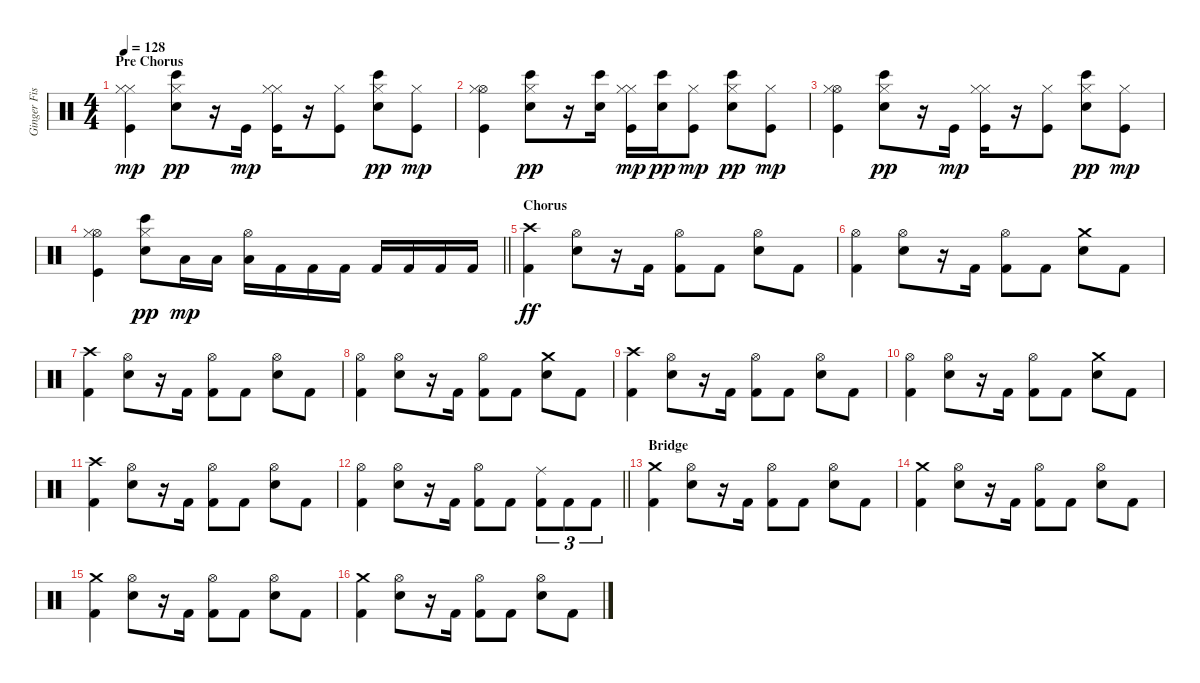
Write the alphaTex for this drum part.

\track ("Ginger Fish" "Ginger Fis") {instrument percussion}
\staff {score}
\articulation defaults
\ts (4 4)
\section ("" "Pre Chorus")
\tempo 128
\clef neutral
\ks c
("Hi-Hat (closed)" "Hi-Hat (closed)" "Kick (hit)").4{dy mp} ("Hi-Hat (closed)" "Bongo High (hit)" "Electric Snare (hit)").8{dy pp} r.16 "Kick (hit)".16{dy mp} ("Hi-Hat (closed)" "Hi-Hat (closed)" "Kick (hit)").16 r.16 ("Hi-Hat (closed)" "Kick (hit)").8 ("Hi-Hat (closed)" "Bongo High (hit)" "Electric Snare (hit)").8{dy pp} ("Hi-Hat (closed)" "Kick (hit)").8{dy mp} |
("Hi-Hat (open)" "Hi-Hat (closed)" "Kick (hit)").4 ("Hi-Hat (closed)" "Bongo High (hit)" "Electric Snare (hit)").8{dy pp} r.16 ("Bongo High (hit)" "Electric Snare (hit)").16 ("Hi-Hat (closed)" "Hi-Hat (closed)" "Kick (hit)").16{dy mp} ("Bongo High (hit)" "Electric Snare (hit)").16{dy pp} ("Hi-Hat (closed)" "Kick (hit)").8{dy mp} ("Hi-Hat (closed)" "Bongo High (hit)" "Electric Snare (hit)").8{dy pp} ("Hi-Hat (closed)" "Kick (hit)").8{dy mp} |
("Hi-Hat (open)" "Hi-Hat (closed)" "Kick (hit)").4 ("Hi-Hat (closed)" "Bongo High (hit)" "Electric Snare (hit)").8{dy pp} r.16 "Kick (hit)".16{dy mp} ("Hi-Hat (closed)" "Hi-Hat (closed)" "Kick (hit)").16 r.16 ("Hi-Hat (closed)" "Kick (hit)").8 ("Hi-Hat (closed)" "Bongo High (hit)" "Electric Snare (hit)").8{dy pp} ("Hi-Hat (closed)" "Kick (hit)").8{dy mp} |
\barLineRight lightlight
("Hi-Hat (open)" "Hi-Hat (closed)" "Kick (hit)").4 ("Hi-Hat (closed)" "Bongo High (hit)" "Electric Snare (hit)").8{dy pp} "Low Floor Tom (hit)".16{dy mp} "Low Floor Tom (hit)".16 ("Hi-Hat (open)" "Low Floor Tom (hit)").16 "Kick (hit) 2".16 "Kick (hit) 2".16 "Kick (hit) 2".16 "Kick (hit) 2".16 "Kick (hit) 2".16 "Kick (hit) 2".16 "Kick (hit) 2".16 |
\section ("" "Chorus")
("Crash high (hit)" "Kick (hit) 2").4{dy ff} ("Hi-Hat (open)" "Electric Snare (hit)").8 r.16 "Kick (hit) 2".16 ("Hi-Hat (open)" "Kick (hit) 2").8 "Kick (hit) 2".8 ("Hi-Hat (open)" "Electric Snare (hit)").8 "Kick (hit) 2".8 |
("Hi-Hat (open)" "Kick (hit) 2").4 ("Hi-Hat (open)" "Electric Snare (hit)").8 r.16 "Kick (hit) 2".16 ("Hi-Hat (open)" "Kick (hit) 2").8 "Kick (hit) 2".8 ("Crash medium (hit)" "Electric Snare (hit)").8 "Kick (hit) 2".8 |
("Crash high (hit)" "Kick (hit) 2").4 ("Hi-Hat (open)" "Electric Snare (hit)").8 r.16 "Kick (hit) 2".16 ("Hi-Hat (open)" "Kick (hit) 2").8 "Kick (hit) 2".8 ("Hi-Hat (open)" "Electric Snare (hit)").8 "Kick (hit) 2".8 |
("Hi-Hat (open)" "Kick (hit) 2").4 ("Hi-Hat (open)" "Electric Snare (hit)").8 r.16 "Kick (hit) 2".16 ("Hi-Hat (open)" "Kick (hit) 2").8 "Kick (hit) 2".8 ("Crash medium (hit)" "Electric Snare (hit)").8 "Kick (hit) 2".8 |
("Crash high (hit)" "Kick (hit) 2").4 ("Hi-Hat (open)" "Electric Snare (hit)").8 r.16 "Kick (hit) 2".16 ("Hi-Hat (open)" "Kick (hit) 2").8 "Kick (hit) 2".8 ("Hi-Hat (open)" "Electric Snare (hit)").8 "Kick (hit) 2".8 |
("Hi-Hat (open)" "Kick (hit) 2").4 ("Hi-Hat (open)" "Electric Snare (hit)").8 r.16 "Kick (hit) 2".16 ("Hi-Hat (open)" "Kick (hit) 2").8 "Kick (hit) 2".8 ("Crash medium (hit)" "Electric Snare (hit)").8 "Kick (hit) 2".8 |
("Crash high (hit)" "Kick (hit) 2").4 ("Hi-Hat (open)" "Electric Snare (hit)").8 r.16 "Kick (hit) 2".16 ("Hi-Hat (open)" "Kick (hit) 2").8 "Kick (hit) 2".8 ("Hi-Hat (open)" "Electric Snare (hit)").8 "Kick (hit) 2".8 |
\barLineRight lightlight
("Hi-Hat (open)" "Kick (hit) 2").4 ("Hi-Hat (open)" "Electric Snare (hit)").8 r.16 "Kick (hit) 2".16 ("Hi-Hat (open)" "Kick (hit) 2").8 "Kick (hit) 2".8 ("Ride (middle)" "Kick (hit) 2").8{tu (3 2)} "Kick (hit) 2".8{tu (3 2)} "Kick (hit) 2".8{tu (3 2)} |
\section ("" "Bridge")
("Crash medium (hit)" "Kick (hit) 2").4 ("Hi-Hat (open)" "Electric Snare (hit)").8 r.16 "Kick (hit) 2".16 ("Hi-Hat (open)" "Kick (hit) 2").8 "Kick (hit) 2".8 ("Hi-Hat (open)" "Electric Snare (hit)").8 "Kick (hit) 2".8 |
("Crash medium (hit)" "Kick (hit) 2").4 ("Hi-Hat (open)" "Electric Snare (hit)").8 r.16 "Kick (hit) 2".16 ("Hi-Hat (open)" "Kick (hit) 2").8 "Kick (hit) 2".8 ("Hi-Hat (open)" "Electric Snare (hit)").8 "Kick (hit) 2".8 |
("Crash medium (hit)" "Kick (hit) 2").4 ("Hi-Hat (open)" "Electric Snare (hit)").8 r.16 "Kick (hit) 2".16 ("Hi-Hat (open)" "Kick (hit) 2").8 "Kick (hit) 2".8 ("Hi-Hat (open)" "Electric Snare (hit)").8 "Kick (hit) 2".8 |
("Crash medium (hit)" "Kick (hit) 2").4 ("Hi-Hat (open)" "Electric Snare (hit)").8 r.16 "Kick (hit) 2".16 ("Hi-Hat (open)" "Kick (hit) 2").8 "Kick (hit) 2".8 ("Hi-Hat (open)" "Electric Snare (hit)").8 "Kick (hit) 2".8
